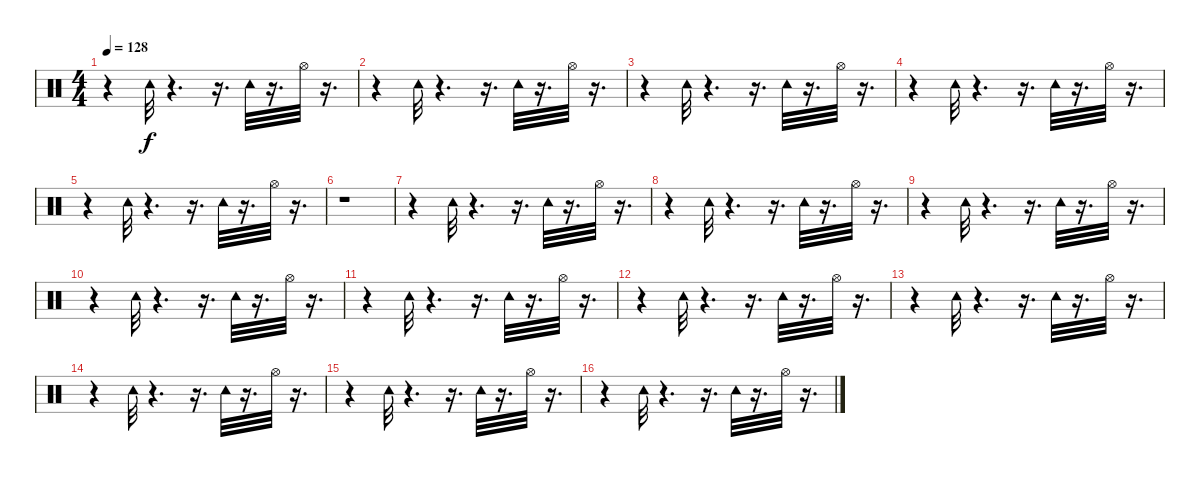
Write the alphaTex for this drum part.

\track "" {instrument percussion}
\staff {score}
\articulation defaults
\ts (4 4)
\tempo 128
\clef neutral
\ks c
r.4{dy f} "Tambourine (hit)".32 r.4{d} r.16{d} "Tambourine (hit)".32 r.16{d} "Hi-Hat (open)".32 r.16{d} |
r.4 "Tambourine (hit)".32 r.4{d} r.16{d} "Tambourine (hit)".32 r.16{d} "Hi-Hat (open)".32 r.16{d} |
r.4 "Tambourine (hit)".32 r.4{d} r.16{d} "Tambourine (hit)".32 r.16{d} "Hi-Hat (open)".32 r.16{d} |
r.4 "Tambourine (hit)".32 r.4{d} r.16{d} "Tambourine (hit)".32 r.16{d} "Hi-Hat (open)".32 r.16{d} |
r.4 "Tambourine (hit)".32 r.4{d} r.16{d} "Tambourine (hit)".32 r.16{d} "Hi-Hat (open)".32 r.16{d} |
r.1 |
r.4 "Tambourine (hit)".32 r.4{d} r.16{d} "Tambourine (hit)".32 r.16{d} "Hi-Hat (open)".32 r.16{d} |
r.4 "Tambourine (hit)".32 r.4{d} r.16{d} "Tambourine (hit)".32 r.16{d} "Hi-Hat (open)".32 r.16{d} |
r.4 "Tambourine (hit)".32 r.4{d} r.16{d} "Tambourine (hit)".32 r.16{d} "Hi-Hat (open)".32 r.16{d} |
r.4 "Tambourine (hit)".32 r.4{d} r.16{d} "Tambourine (hit)".32 r.16{d} "Hi-Hat (open)".32 r.16{d} |
r.4 "Tambourine (hit)".32 r.4{d} r.16{d} "Tambourine (hit)".32 r.16{d} "Hi-Hat (open)".32 r.16{d} |
r.4 "Tambourine (hit)".32 r.4{d} r.16{d} "Tambourine (hit)".32 r.16{d} "Hi-Hat (open)".32 r.16{d} |
r.4 "Tambourine (hit)".32 r.4{d} r.16{d} "Tambourine (hit)".32 r.16{d} "Hi-Hat (open)".32 r.16{d} |
r.4 "Tambourine (hit)".32 r.4{d} r.16{d} "Tambourine (hit)".32 r.16{d} "Hi-Hat (open)".32 r.16{d} |
r.4 "Tambourine (hit)".32 r.4{d} r.16{d} "Tambourine (hit)".32 r.16{d} "Hi-Hat (open)".32 r.16{d} |
r.4 "Tambourine (hit)".32 r.4{d} r.16{d} "Tambourine (hit)".32 r.16{d} "Hi-Hat (open)".32 r.16{d}
